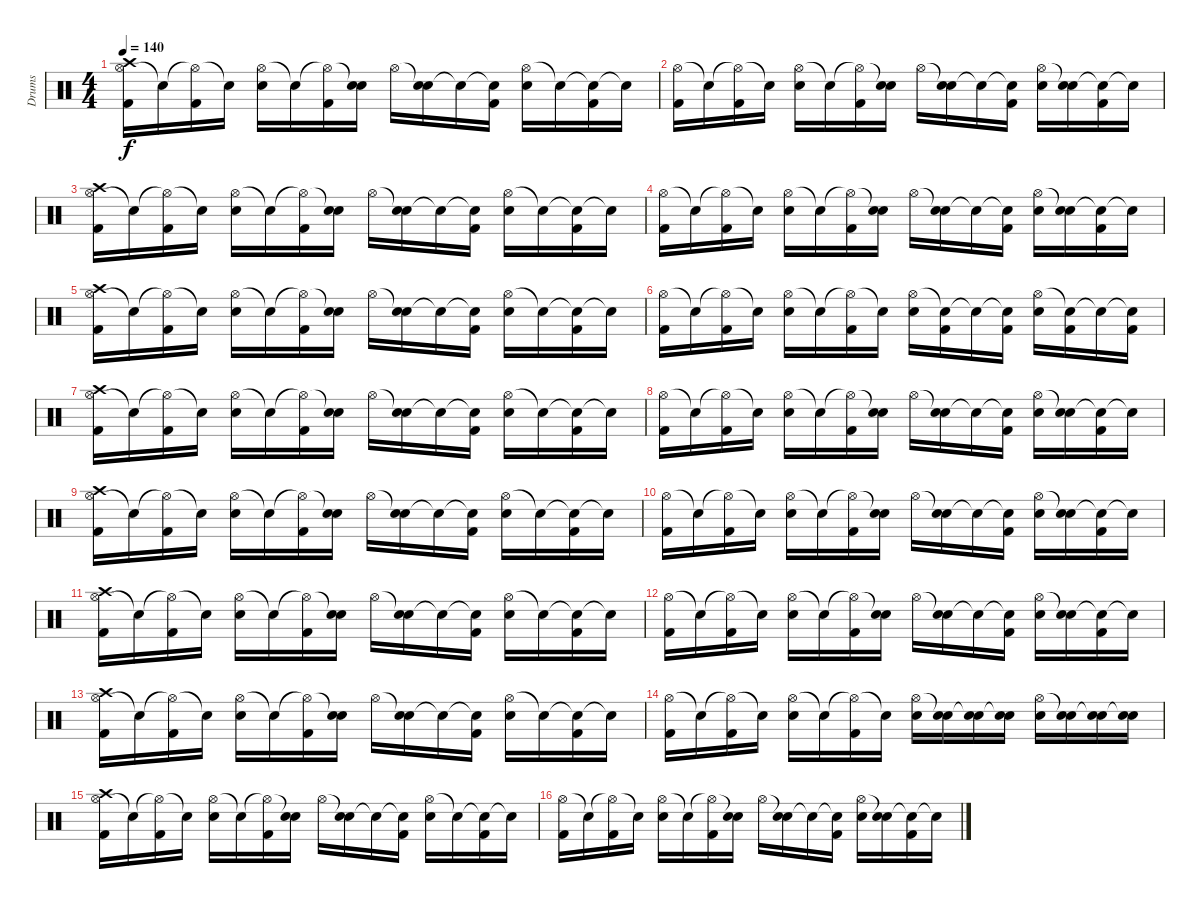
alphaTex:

\track ("Drums" "Drums") {instrument percussion}
\staff {score}
\articulation defaults
\ts (4 4)
\tempo 140
\clef neutral
\ks c
("Hi-Hat (open)" "Kick (hit) 2" "Crash high (hit)").16{dy f} "Snare (hit)"{t}.16 ("Hi-Hat (open)"{t} "Kick (hit) 2").16 "Snare (hit)"{t}.16 ("Hi-Hat (open)" "Electric Snare (hit)").16 "Snare (hit)"{t}.16 ("Hi-Hat (open)"{t} "Kick (hit) 2").16 ("Snare (hit)"{t} "Electric Snare (hit)").16 "Hi-Hat (open)".16 ("Snare (hit)"{t} "Electric Snare (hit)").16 "Snare (hit)"{t}.16 ("Snare (hit)"{t} "Kick (hit) 2").16 ("Hi-Hat (open)" "Electric Snare (hit)").16 "Snare (hit)"{t}.16 ("Snare (hit)"{t} "Kick (hit) 2").16 "Snare (hit)"{t}.16 |
("Hi-Hat (open)" "Kick (hit) 2").16 "Snare (hit)"{t}.16 ("Hi-Hat (open)"{t} "Kick (hit) 2").16 "Snare (hit)"{t}.16 ("Hi-Hat (open)" "Electric Snare (hit)").16 "Snare (hit)"{t}.16 ("Hi-Hat (open)"{t} "Kick (hit) 2").16 ("Snare (hit)"{t} "Electric Snare (hit)").16 "Hi-Hat (open)".16 ("Snare (hit)"{t} "Electric Snare (hit)").16 "Snare (hit)"{t}.16 ("Snare (hit)"{t} "Kick (hit) 2").16 ("Hi-Hat (open)" "Electric Snare (hit)").16 ("Snare (hit)"{t} "Electric Snare (hit)").16 ("Snare (hit)"{t} "Kick (hit) 2").16 "Snare (hit)"{t}.16 |
("Hi-Hat (open)" "Kick (hit) 2" "Crash high (hit)").16 "Snare (hit)"{t}.16 ("Hi-Hat (open)"{t} "Kick (hit) 2").16 "Snare (hit)"{t}.16 ("Hi-Hat (open)" "Electric Snare (hit)").16 "Snare (hit)"{t}.16 ("Hi-Hat (open)"{t} "Kick (hit) 2").16 ("Snare (hit)"{t} "Electric Snare (hit)").16 "Hi-Hat (open)".16 ("Snare (hit)"{t} "Electric Snare (hit)").16 "Snare (hit)"{t}.16 ("Snare (hit)"{t} "Kick (hit) 2").16 ("Hi-Hat (open)" "Electric Snare (hit)").16 "Snare (hit)"{t}.16 ("Snare (hit)"{t} "Kick (hit) 2").16 "Snare (hit)"{t}.16 |
("Hi-Hat (open)" "Kick (hit) 2").16 "Snare (hit)"{t}.16 ("Hi-Hat (open)"{t} "Kick (hit) 2").16 "Snare (hit)"{t}.16 ("Hi-Hat (open)" "Electric Snare (hit)").16 "Snare (hit)"{t}.16 ("Hi-Hat (open)"{t} "Kick (hit) 2").16 ("Snare (hit)"{t} "Electric Snare (hit)").16 "Hi-Hat (open)".16 ("Snare (hit)"{t} "Electric Snare (hit)").16 "Snare (hit)"{t}.16 ("Snare (hit)"{t} "Kick (hit) 2").16 ("Hi-Hat (open)" "Electric Snare (hit)").16 ("Snare (hit)"{t} "Electric Snare (hit)").16 ("Snare (hit)"{t} "Kick (hit) 2").16 "Snare (hit)"{t}.16 |
("Hi-Hat (open)" "Kick (hit) 2" "Crash high (hit)").16 "Snare (hit)"{t}.16 ("Hi-Hat (open)"{t} "Kick (hit) 2").16 "Snare (hit)"{t}.16 ("Hi-Hat (open)" "Electric Snare (hit)").16 "Snare (hit)"{t}.16 ("Hi-Hat (open)"{t} "Kick (hit) 2").16 ("Snare (hit)"{t} "Electric Snare (hit)").16 "Hi-Hat (open)".16 ("Snare (hit)"{t} "Electric Snare (hit)").16 "Snare (hit)"{t}.16 ("Snare (hit)"{t} "Kick (hit) 2").16 ("Hi-Hat (open)" "Electric Snare (hit)").16 "Snare (hit)"{t}.16 ("Snare (hit)"{t} "Kick (hit) 2").16 "Snare (hit)"{t}.16 |
("Hi-Hat (open)" "Kick (hit) 2").16 "Snare (hit)"{t}.16 ("Hi-Hat (open)"{t} "Kick (hit) 2").16 "Snare (hit)"{t}.16 ("Hi-Hat (open)" "Electric Snare (hit)").16 "Snare (hit)"{t}.16 ("Hi-Hat (open)"{t} "Kick (hit) 2").16 "Snare (hit)"{t}.16 ("Hi-Hat (open)" "Electric Snare (hit)").16 ("Snare (hit)"{t} "Kick (hit) 2").16 "Snare (hit)"{t}.16 ("Snare (hit)"{t} "Kick (hit) 2").16 ("Hi-Hat (open)" "Electric Snare (hit)").16 ("Snare (hit)"{t} "Kick (hit) 2").16 "Snare (hit)"{t}.16 ("Snare (hit)"{t} "Kick (hit) 2").16 |
("Hi-Hat (open)" "Kick (hit) 2" "Crash high (hit)").16 "Snare (hit)"{t}.16 ("Hi-Hat (open)"{t} "Kick (hit) 2").16 "Snare (hit)"{t}.16 ("Hi-Hat (open)" "Electric Snare (hit)").16 "Snare (hit)"{t}.16 ("Hi-Hat (open)"{t} "Kick (hit) 2").16 ("Snare (hit)"{t} "Electric Snare (hit)").16 "Hi-Hat (open)".16 ("Snare (hit)"{t} "Electric Snare (hit)").16 "Snare (hit)"{t}.16 ("Snare (hit)"{t} "Kick (hit) 2").16 ("Hi-Hat (open)" "Electric Snare (hit)").16 "Snare (hit)"{t}.16 ("Snare (hit)"{t} "Kick (hit) 2").16 "Snare (hit)"{t}.16 |
("Hi-Hat (open)" "Kick (hit) 2").16 "Snare (hit)"{t}.16 ("Hi-Hat (open)"{t} "Kick (hit) 2").16 "Snare (hit)"{t}.16 ("Hi-Hat (open)" "Electric Snare (hit)").16 "Snare (hit)"{t}.16 ("Hi-Hat (open)"{t} "Kick (hit) 2").16 ("Snare (hit)"{t} "Electric Snare (hit)").16 "Hi-Hat (open)".16 ("Snare (hit)"{t} "Electric Snare (hit)").16 "Snare (hit)"{t}.16 ("Snare (hit)"{t} "Kick (hit) 2").16 ("Hi-Hat (open)" "Electric Snare (hit)").16 ("Snare (hit)"{t} "Electric Snare (hit)").16 ("Snare (hit)"{t} "Kick (hit) 2").16 "Snare (hit)"{t}.16 |
("Hi-Hat (open)" "Kick (hit) 2" "Crash high (hit)").16 "Snare (hit)"{t}.16 ("Hi-Hat (open)"{t} "Kick (hit) 2").16 "Snare (hit)"{t}.16 ("Hi-Hat (open)" "Electric Snare (hit)").16 "Snare (hit)"{t}.16 ("Hi-Hat (open)"{t} "Kick (hit) 2").16 ("Snare (hit)"{t} "Electric Snare (hit)").16 "Hi-Hat (open)".16 ("Snare (hit)"{t} "Electric Snare (hit)").16 "Snare (hit)"{t}.16 ("Snare (hit)"{t} "Kick (hit) 2").16 ("Hi-Hat (open)" "Electric Snare (hit)").16 "Snare (hit)"{t}.16 ("Snare (hit)"{t} "Kick (hit) 2").16 "Snare (hit)"{t}.16 |
("Hi-Hat (open)" "Kick (hit) 2").16 "Snare (hit)"{t}.16 ("Hi-Hat (open)"{t} "Kick (hit) 2").16 "Snare (hit)"{t}.16 ("Hi-Hat (open)" "Electric Snare (hit)").16 "Snare (hit)"{t}.16 ("Hi-Hat (open)"{t} "Kick (hit) 2").16 ("Snare (hit)"{t} "Electric Snare (hit)").16 "Hi-Hat (open)".16 ("Snare (hit)"{t} "Electric Snare (hit)").16 "Snare (hit)"{t}.16 ("Snare (hit)"{t} "Kick (hit) 2").16 ("Hi-Hat (open)" "Electric Snare (hit)").16 ("Snare (hit)"{t} "Electric Snare (hit)").16 ("Snare (hit)"{t} "Kick (hit) 2").16 "Snare (hit)"{t}.16 |
("Hi-Hat (open)" "Kick (hit) 2" "Crash high (hit)").16 "Snare (hit)"{t}.16 ("Hi-Hat (open)"{t} "Kick (hit) 2").16 "Snare (hit)"{t}.16 ("Hi-Hat (open)" "Electric Snare (hit)").16 "Snare (hit)"{t}.16 ("Hi-Hat (open)"{t} "Kick (hit) 2").16 ("Snare (hit)"{t} "Electric Snare (hit)").16 "Hi-Hat (open)".16 ("Snare (hit)"{t} "Electric Snare (hit)").16 "Snare (hit)"{t}.16 ("Snare (hit)"{t} "Kick (hit) 2").16 ("Hi-Hat (open)" "Electric Snare (hit)").16 "Snare (hit)"{t}.16 ("Snare (hit)"{t} "Kick (hit) 2").16 "Snare (hit)"{t}.16 |
("Hi-Hat (open)" "Kick (hit) 2").16 "Snare (hit)"{t}.16 ("Hi-Hat (open)"{t} "Kick (hit) 2").16 "Snare (hit)"{t}.16 ("Hi-Hat (open)" "Electric Snare (hit)").16 "Snare (hit)"{t}.16 ("Hi-Hat (open)"{t} "Kick (hit) 2").16 ("Snare (hit)"{t} "Electric Snare (hit)").16 "Hi-Hat (open)".16 ("Snare (hit)"{t} "Electric Snare (hit)").16 "Snare (hit)"{t}.16 ("Snare (hit)"{t} "Kick (hit) 2").16 ("Hi-Hat (open)" "Electric Snare (hit)").16 ("Snare (hit)"{t} "Electric Snare (hit)").16 ("Snare (hit)"{t} "Kick (hit) 2").16 "Snare (hit)"{t}.16 |
("Hi-Hat (open)" "Kick (hit) 2" "Crash high (hit)").16 "Snare (hit)"{t}.16 ("Hi-Hat (open)"{t} "Kick (hit) 2").16 "Snare (hit)"{t}.16 ("Hi-Hat (open)" "Electric Snare (hit)").16 "Snare (hit)"{t}.16 ("Hi-Hat (open)"{t} "Kick (hit) 2").16 ("Snare (hit)"{t} "Electric Snare (hit)").16 "Hi-Hat (open)".16 ("Snare (hit)"{t} "Electric Snare (hit)").16 "Snare (hit)"{t}.16 ("Snare (hit)"{t} "Kick (hit) 2").16 ("Hi-Hat (open)" "Electric Snare (hit)").16 "Snare (hit)"{t}.16 ("Snare (hit)"{t} "Kick (hit) 2").16 "Snare (hit)"{t}.16 |
("Hi-Hat (open)" "Kick (hit) 2").16 "Snare (hit)"{t}.16 ("Hi-Hat (open)"{t} "Kick (hit) 2").16 "Snare (hit)"{t}.16 ("Hi-Hat (open)" "Electric Snare (hit)").16 "Snare (hit)"{t}.16 ("Hi-Hat (open)"{t} "Kick (hit) 2").16 "Snare (hit)"{t}.16 ("Hi-Hat (open)" "Electric Snare (hit)").16 ("Snare (hit)"{t} "Electric Snare (hit)").16 ("Snare (hit)"{t} "Electric Snare (hit)").16 ("Snare (hit)"{t} "Electric Snare (hit)").16 ("Hi-Hat (open)" "Electric Snare (hit)").16 ("Snare (hit)"{t} "Electric Snare (hit)").16 ("Snare (hit)"{t} "Electric Snare (hit)").16 ("Snare (hit)"{t} "Electric Snare (hit)").16 |
("Hi-Hat (open)" "Kick (hit) 2" "Crash high (hit)").16 "Snare (hit)"{t}.16 ("Hi-Hat (open)"{t} "Kick (hit) 2").16 "Snare (hit)"{t}.16 ("Hi-Hat (open)" "Electric Snare (hit)").16 "Snare (hit)"{t}.16 ("Hi-Hat (open)"{t} "Kick (hit) 2").16 ("Snare (hit)"{t} "Electric Snare (hit)").16 "Hi-Hat (open)".16 ("Snare (hit)"{t} "Electric Snare (hit)").16 "Snare (hit)"{t}.16 ("Snare (hit)"{t} "Kick (hit) 2").16 ("Hi-Hat (open)" "Electric Snare (hit)").16 "Snare (hit)"{t}.16 ("Snare (hit)"{t} "Kick (hit) 2").16 "Snare (hit)"{t}.16 |
("Hi-Hat (open)" "Kick (hit) 2").16 "Snare (hit)"{t}.16 ("Hi-Hat (open)"{t} "Kick (hit) 2").16 "Snare (hit)"{t}.16 ("Hi-Hat (open)" "Electric Snare (hit)").16 "Snare (hit)"{t}.16 ("Hi-Hat (open)"{t} "Kick (hit) 2").16 ("Snare (hit)"{t} "Electric Snare (hit)").16 "Hi-Hat (open)".16 ("Snare (hit)"{t} "Electric Snare (hit)").16 "Snare (hit)"{t}.16 ("Snare (hit)"{t} "Kick (hit) 2").16 ("Hi-Hat (open)" "Electric Snare (hit)").16 ("Snare (hit)"{t} "Electric Snare (hit)").16 ("Snare (hit)"{t} "Kick (hit) 2").16 "Snare (hit)"{t}.16
